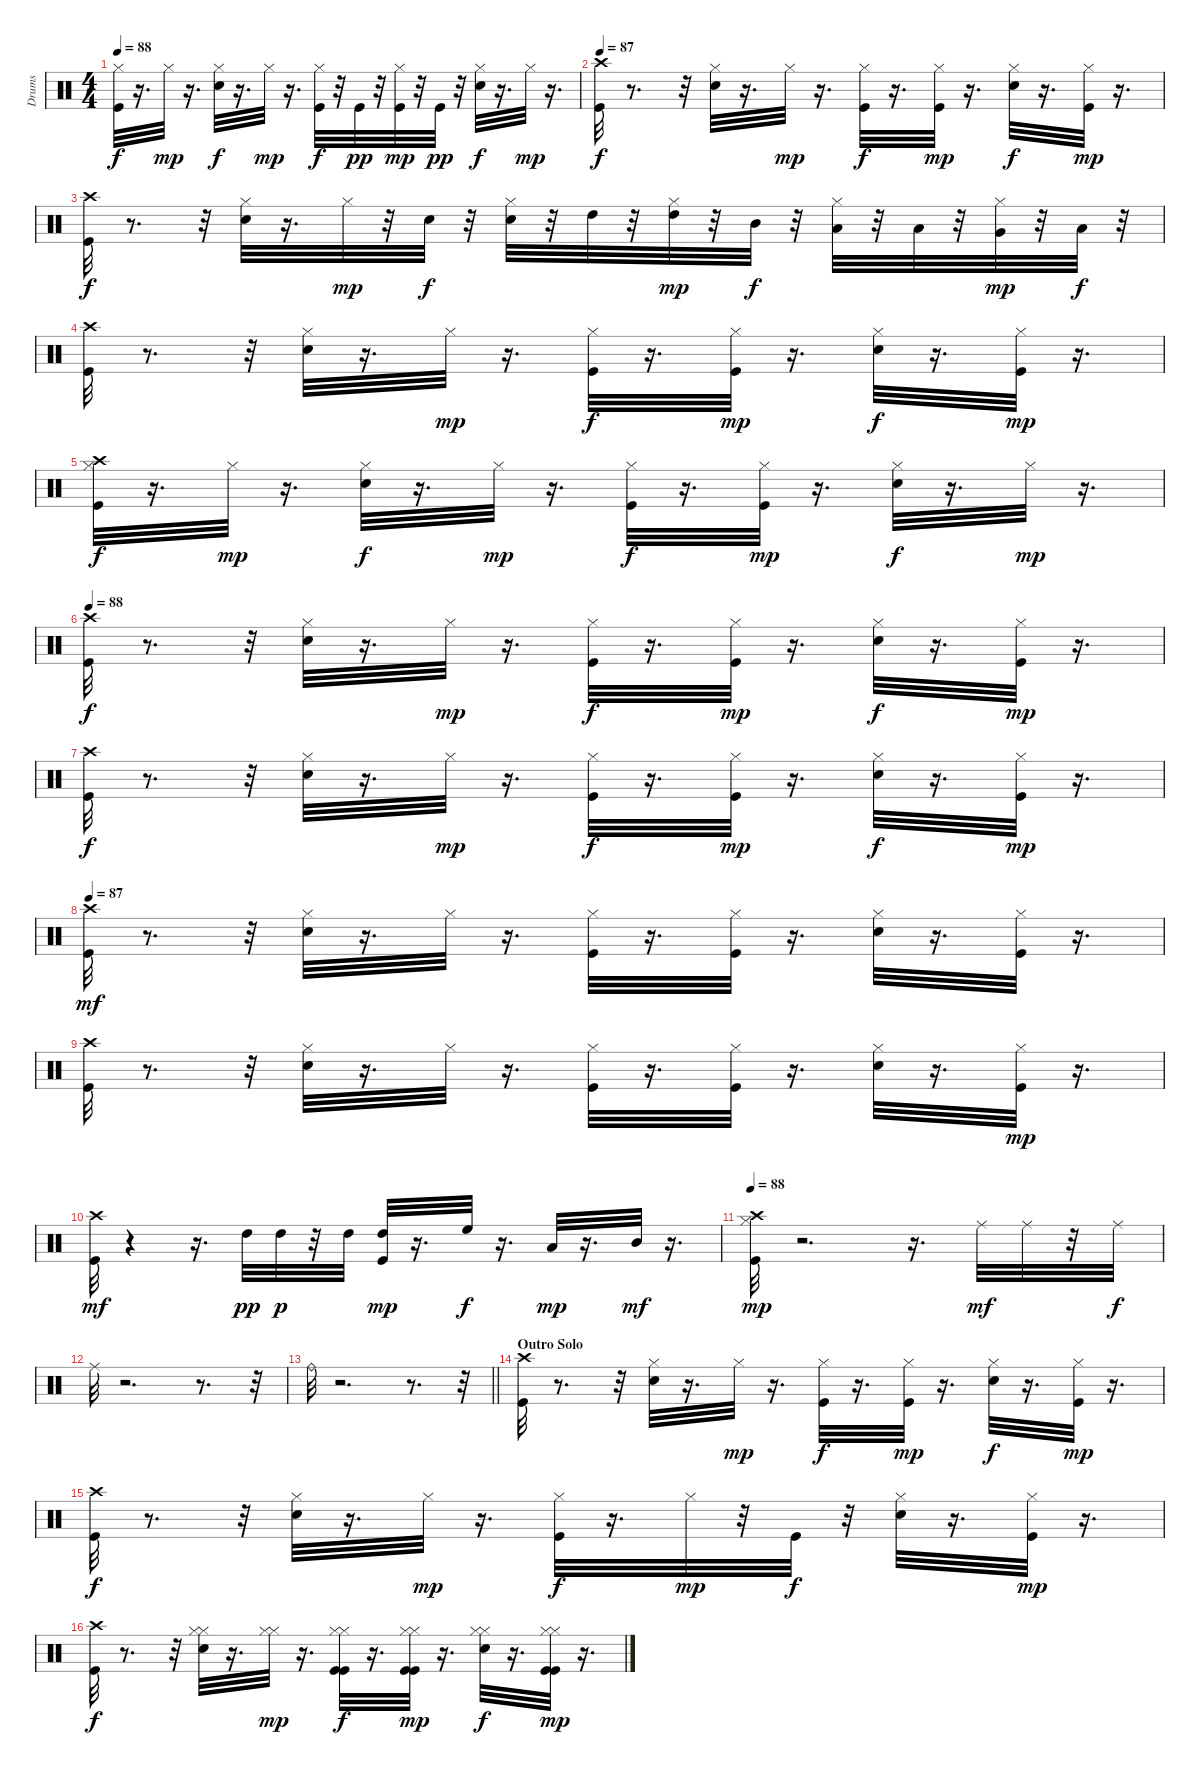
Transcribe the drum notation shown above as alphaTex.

\track ("Drums" "Drums") {instrument percussion}
\staff {score}
\articulation defaults
\ts (4 4)
\tempo 88
\clef neutral
\ks c
("Kick (hit)" "Hi-Hat (closed)").32{dy f} r.16{d} "Hi-Hat (closed)".32{dy mp} r.16{d} ("Electric Snare (hit)" "Hi-Hat (closed)").32{dy f} r.16{d} "Hi-Hat (closed)".32{dy mp} r.16{d} ("Hi-Hat (closed)" "Kick (hit)").32{dy f} r.32 "Kick (hit)".32{dy pp} r.32 ("Hi-Hat (closed)" "Kick (hit)").32{dy mp} r.32 "Kick (hit)".32{dy pp} r.32 ("Hi-Hat (closed)" "Electric Snare (hit)").32{dy f} r.16{d} "Hi-Hat (closed)".32{dy mp} r.16{d} |
\tempo 87
("Kick (hit)" "Crash high (hit)").32{dy f} r.8{d} r.32 ("Electric Snare (hit)" "Hi-Hat (closed)").32 r.16{d} "Hi-Hat (closed)".32{dy mp} r.16{d} ("Hi-Hat (closed)" "Kick (hit)").32{dy f} r.16{d} ("Hi-Hat (closed)" "Kick (hit)").32{dy mp} r.16{d} ("Electric Snare (hit)" "Hi-Hat (closed)").32{dy f} r.16{d} ("Hi-Hat (closed)" "Kick (hit)").32{dy mp} r.16{d} |
("Kick (hit)" "Crash high (hit)").32{dy f} r.8{d} r.32 ("Electric Snare (hit)" "Hi-Hat (closed)").32 r.16{d} "Hi-Hat (closed)".32{dy mp} r.32 "Electric Snare (hit)".32{dy f} r.32 ("Electric Snare (hit)" "Hi-Hat (closed)").32 r.32 "High Tom (hit)".32 r.32 ("High Tom (hit)" "Hi-Hat (closed)").32{dy mp} r.32 "Mid Tom (hit)".32{dy f} r.32 ("Low Tom (hit)" "Hi-Hat (closed)").32 r.32 "Low Tom (hit)".32 r.32 ("Very Low Tom (hit)" "Hi-Hat (closed)").32{dy mp} r.32 "Low Floor Tom (hit)".32{dy f} r.32 |
("Kick (hit)" "Crash high (hit)").32 r.8{d} r.32 ("Hi-Hat (closed)" "Electric Snare (hit)").32 r.16{d} "Hi-Hat (closed)".32{dy mp} r.16{d} ("Kick (hit)" "Hi-Hat (closed)").32{dy f} r.16{d} ("Kick (hit)" "Hi-Hat (closed)").32{dy mp} r.16{d} ("Hi-Hat (closed)" "Electric Snare (hit)").32{dy f} r.16{d} ("Hi-Hat (closed)" "Kick (hit)").32{dy mp} r.16{d} |
("Crash high (hit)" "Hi-Hat (closed)" "Kick (hit)").32{dy f} r.16{d} "Hi-Hat (closed)".32{dy mp} r.16{d} ("Electric Snare (hit)" "Hi-Hat (closed)").32{dy f} r.16{d} "Hi-Hat (closed)".32{dy mp} r.16{d} ("Hi-Hat (closed)" "Kick (hit)").32{dy f} r.16{d} ("Hi-Hat (closed)" "Kick (hit)").32{dy mp} r.16{d} ("Electric Snare (hit)" "Hi-Hat (closed)").32{dy f} r.16{d} "Hi-Hat (closed)".32{dy mp} r.16{d} |
\tempo 88
("Kick (hit)" "Crash high (hit)").32{dy f} r.8{d} r.32 ("Electric Snare (hit)" "Hi-Hat (closed)").32 r.16{d} "Hi-Hat (closed)".32{dy mp} r.16{d} ("Hi-Hat (closed)" "Kick (hit)").32{dy f} r.16{d} ("Hi-Hat (closed)" "Kick (hit)").32{dy mp} r.16{d} ("Electric Snare (hit)" "Hi-Hat (closed)").32{dy f} r.16{d} ("Hi-Hat (closed)" "Kick (hit)").32{dy mp} r.16{d} |
("Kick (hit)" "Crash high (hit)").32{dy f} r.8{d} r.32 ("Electric Snare (hit)" "Hi-Hat (closed)").32 r.16{d} "Hi-Hat (closed)".32{dy mp} r.16{d} ("Hi-Hat (closed)" "Kick (hit)").32{dy f} r.16{d} ("Hi-Hat (closed)" "Kick (hit)").32{dy mp} r.16{d} ("Electric Snare (hit)" "Hi-Hat (closed)").32{dy f} r.16{d} ("Hi-Hat (closed)" "Kick (hit)").32{dy mp} r.16{d} |
\tempo 87
("Kick (hit)" "Crash high (hit)").32{dy mf} r.8{d} r.32 ("Electric Snare (hit)" "Hi-Hat (closed)").32 r.16{d} "Hi-Hat (closed)".32 r.16{d} ("Hi-Hat (closed)" "Kick (hit)").32 r.16{d} ("Hi-Hat (closed)" "Kick (hit)").32 r.16{d} ("Electric Snare (hit)" "Hi-Hat (closed)").32 r.16{d} ("Hi-Hat (closed)" "Kick (hit)").32 r.16{d} |
("Kick (hit)" "Crash high (hit)").32 r.8{d} r.32 ("Electric Snare (hit)" "Hi-Hat (closed)").32 r.16{d} "Hi-Hat (closed)".32 r.16{d} ("Hi-Hat (closed)" "Kick (hit)").32 r.16{d} ("Hi-Hat (closed)" "Kick (hit)").32 r.16{d} ("Electric Snare (hit)" "Hi-Hat (closed)").32 r.16{d} ("Hi-Hat (closed)" "Kick (hit)").32{dy mp} r.16{d} |
("Crash high (hit)" "Kick (hit)").32{dy mf} r.4 r.16{d} "High Tom (hit)".32{dy pp} "High Tom (hit)".32{dy p} r.32 "High Tom (hit)".32 ("Kick (hit)" "High Tom (hit)").32{dy mp} r.16{d} "High Floor Tom (hit)".32{dy f} r.16{d} "Low Tom (hit)".32{dy mp} r.16{d} "Mid Tom (hit)".32{dy mf} r.16{d} |
\tempo 88
("Crash high (hit)" "Hi-Hat (closed)" "Kick (hit)").32{dy mp} r.2{d} r.16{d} "Ride (middle)".32{dy mf} "Ride (middle)".32 r.32 "Ride (middle)".32{dy f} |
"Ride (middle)".32 r.2{d} r.8{d} r.32 |
\barLineRight lightlight "Ride (bell)".32
r.2{d} r.8{d} r.32 |
\section ("" "Outro Solo")
("Kick (hit)" "Crash high (hit)").32 r.8{d} r.32 ("Hi-Hat (closed)" "Electric Snare (hit)").32 r.16{d} "Hi-Hat (closed)".32{dy mp} r.16{d} ("Hi-Hat (closed)" "Kick (hit)").32{dy f} r.16{d} ("Hi-Hat (closed)" "Kick (hit)").32{dy mp} r.16{d} ("Electric Snare (hit)" "Hi-Hat (closed)").32{dy f} r.16{d} ("Kick (hit)" "Hi-Hat (closed)").32{dy mp} r.16{d} |
("Kick (hit)" "Crash high (hit)").32{dy f} r.8{d} r.32 ("Electric Snare (hit)" "Hi-Hat (closed)").32 r.16{d} "Hi-Hat (closed)".32{dy mp} r.16{d} ("Hi-Hat (closed)" "Kick (hit)").32{dy f} r.16{d} "Hi-Hat (closed)".32{dy mp} r.32 "Kick (hit)".32{dy f} r.32 ("Electric Snare (hit)" "Hi-Hat (closed)").32 r.16{d} ("Hi-Hat (closed)" "Kick (hit)").32{dy mp} r.16{d} |
("Kick (hit)" "Crash high (hit)").32{dy f} r.8{d} r.32 ("Electric Snare (hit)" "Hi-Hat (closed)" "Hi-Hat (closed)").32 r.16{d} ("Hi-Hat (closed)" "Hi-Hat (closed)").32{dy mp} r.16{d} ("Hi-Hat (closed)" "Kick (hit)" "Hi-Hat (closed)" "Kick (hit)").32{dy f} r.16{d} ("Hi-Hat (closed)" "Kick (hit)" "Hi-Hat (closed)" "Kick (hit)").32{dy mp} r.16{d} ("Electric Snare (hit)" "Hi-Hat (closed)" "Hi-Hat (closed)").32{dy f} r.16{d} ("Hi-Hat (closed)" "Kick (hit)" "Hi-Hat (closed)" "Kick (hit)").32{dy mp} r.16{d}
